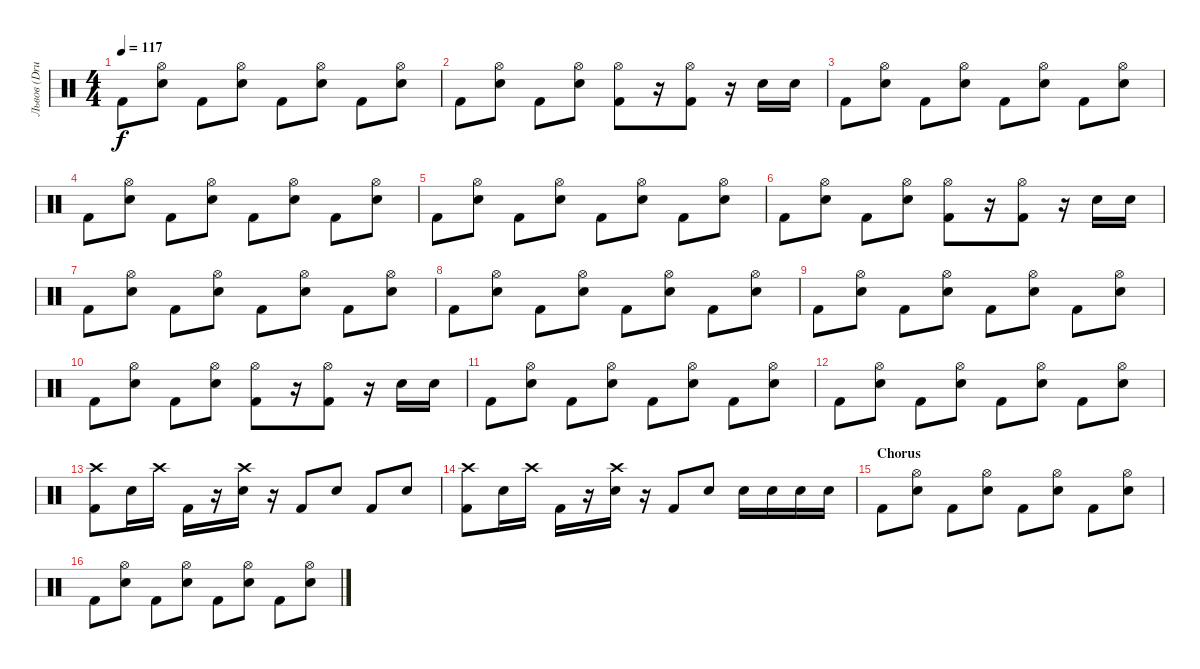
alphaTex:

\track ("Львов (Drums)" "Львов (Dru") {instrument percussion}
\staff {score}
\articulation defaults
\ts (4 4)
\tempo 117
\clef neutral
\ks c "Kick (hit) 2".8{dy f}
("Electric Snare (hit)" "Hi-Hat (open)").8 "Kick (hit) 2".8 ("Electric Snare (hit)" "Hi-Hat (open)").8 "Kick (hit) 2".8 ("Electric Snare (hit)" "Hi-Hat (open)").8 "Kick (hit) 2".8 ("Electric Snare (hit)" "Hi-Hat (open)").8 |
"Kick (hit) 2".8 ("Electric Snare (hit)" "Hi-Hat (open)").8 "Kick (hit) 2".8 ("Electric Snare (hit)" "Hi-Hat (open)").8 ("Kick (hit) 2" "Hi-Hat (open)").8 r.16 ("Kick (hit) 2" "Hi-Hat (open)").8 r.16 "Electric Snare (hit)".16 "Electric Snare (hit)".16 |
"Kick (hit) 2".8 ("Electric Snare (hit)" "Hi-Hat (open)").8 "Kick (hit) 2".8 ("Electric Snare (hit)" "Hi-Hat (open)").8 "Kick (hit) 2".8 ("Electric Snare (hit)" "Hi-Hat (open)").8 "Kick (hit) 2".8 ("Electric Snare (hit)" "Hi-Hat (open)").8 |
"Kick (hit) 2".8 ("Electric Snare (hit)" "Hi-Hat (open)").8 "Kick (hit) 2".8 ("Electric Snare (hit)" "Hi-Hat (open)").8 "Kick (hit) 2".8 ("Electric Snare (hit)" "Hi-Hat (open)").8 "Kick (hit) 2".8 ("Electric Snare (hit)" "Hi-Hat (open)").8 |
"Kick (hit) 2".8 ("Electric Snare (hit)" "Hi-Hat (open)").8 "Kick (hit) 2".8 ("Electric Snare (hit)" "Hi-Hat (open)").8 "Kick (hit) 2".8 ("Electric Snare (hit)" "Hi-Hat (open)").8 "Kick (hit) 2".8 ("Electric Snare (hit)" "Hi-Hat (open)").8 |
"Kick (hit) 2".8 ("Electric Snare (hit)" "Hi-Hat (open)").8 "Kick (hit) 2".8 ("Electric Snare (hit)" "Hi-Hat (open)").8 ("Kick (hit) 2" "Hi-Hat (open)").8 r.16 ("Kick (hit) 2" "Hi-Hat (open)").8 r.16 "Electric Snare (hit)".16 "Electric Snare (hit)".16 |
"Kick (hit) 2".8 ("Electric Snare (hit)" "Hi-Hat (open)").8 "Kick (hit) 2".8 ("Electric Snare (hit)" "Hi-Hat (open)").8 "Kick (hit) 2".8 ("Electric Snare (hit)" "Hi-Hat (open)").8 "Kick (hit) 2".8 ("Electric Snare (hit)" "Hi-Hat (open)").8 |
"Kick (hit) 2".8 ("Electric Snare (hit)" "Hi-Hat (open)").8 "Kick (hit) 2".8 ("Electric Snare (hit)" "Hi-Hat (open)").8 "Kick (hit) 2".8 ("Electric Snare (hit)" "Hi-Hat (open)").8 "Kick (hit) 2".8 ("Electric Snare (hit)" "Hi-Hat (open)").8 |
"Kick (hit) 2".8 ("Electric Snare (hit)" "Hi-Hat (open)").8 "Kick (hit) 2".8 ("Electric Snare (hit)" "Hi-Hat (open)").8 "Kick (hit) 2".8 ("Electric Snare (hit)" "Hi-Hat (open)").8 "Kick (hit) 2".8 ("Electric Snare (hit)" "Hi-Hat (open)").8 |
"Kick (hit) 2".8 ("Electric Snare (hit)" "Hi-Hat (open)").8 "Kick (hit) 2".8 ("Electric Snare (hit)" "Hi-Hat (open)").8 ("Kick (hit) 2" "Hi-Hat (open)").8 r.16 ("Kick (hit) 2" "Hi-Hat (open)").8 r.16 "Electric Snare (hit)".16 "Electric Snare (hit)".16 |
"Kick (hit) 2".8 ("Electric Snare (hit)" "Hi-Hat (open)").8 "Kick (hit) 2".8 ("Electric Snare (hit)" "Hi-Hat (open)").8 "Kick (hit) 2".8 ("Electric Snare (hit)" "Hi-Hat (open)").8 "Kick (hit) 2".8 ("Electric Snare (hit)" "Hi-Hat (open)").8 |
"Kick (hit) 2".8 ("Electric Snare (hit)" "Hi-Hat (open)").8 "Kick (hit) 2".8 ("Electric Snare (hit)" "Hi-Hat (open)").8 "Kick (hit) 2".8 ("Electric Snare (hit)" "Hi-Hat (open)").8 "Kick (hit) 2".8 ("Electric Snare (hit)" "Hi-Hat (open)").8 |
("Kick (hit) 2" "Crash high (hit)").8 "Electric Snare (hit)".16 "Crash high (hit)".16 "Kick (hit) 2".16 r.16 ("Electric Snare (hit)" "Crash high (hit)").16 r.16 "Kick (hit) 2".8 "Electric Snare (hit)".8 "Kick (hit) 2".8 "Electric Snare (hit)".8 |
("Kick (hit) 2" "Crash high (hit)").8 "Electric Snare (hit)".16 "Crash high (hit)".16 "Kick (hit) 2".16 r.16 ("Electric Snare (hit)" "Crash high (hit)").16 r.16 "Kick (hit) 2".8 "Electric Snare (hit)".8 "Electric Snare (hit)".16 "Electric Snare (hit)".16 "Electric Snare (hit)".16 "Electric Snare (hit)".16 |
\section ("" "Chorus")
"Kick (hit) 2".8 ("Electric Snare (hit)" "Hi-Hat (open)").8 "Kick (hit) 2".8 ("Electric Snare (hit)" "Hi-Hat (open)").8 "Kick (hit) 2".8 ("Electric Snare (hit)" "Hi-Hat (open)").8 "Kick (hit) 2".8 ("Electric Snare (hit)" "Hi-Hat (open)").8 |
"Kick (hit) 2".8 ("Electric Snare (hit)" "Hi-Hat (open)").8 "Kick (hit) 2".8 ("Electric Snare (hit)" "Hi-Hat (open)").8 "Kick (hit) 2".8 ("Electric Snare (hit)" "Hi-Hat (open)").8 "Kick (hit) 2".8 ("Electric Snare (hit)" "Hi-Hat (open)").8
